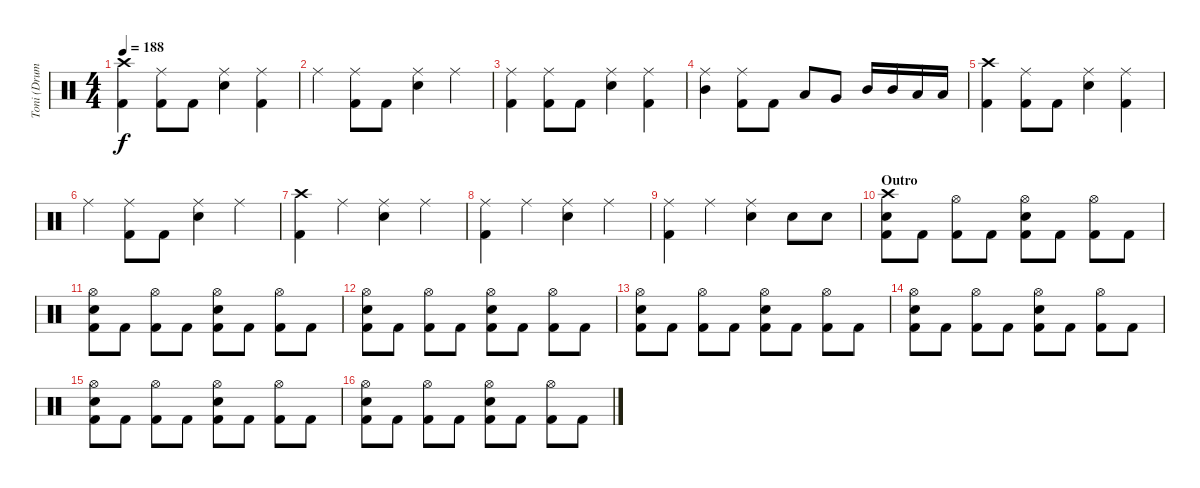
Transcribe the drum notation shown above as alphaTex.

\track ("Toni (Drums)" "Toni (Drum") {instrument percussion}
\staff {score}
\articulation defaults
\ts (4 4)
\tempo 188
\clef neutral
\ks c
("Crash high (hit)" "Kick (hit) 2").4{dy f} ("Ride (middle)" "Kick (hit) 2").8 "Kick (hit) 2".8 ("Ride (middle)" "Electric Snare (hit)").4 ("Ride (middle)" "Kick (hit) 2").4 |
"Ride (middle)".4 ("Ride (middle)" "Kick (hit) 2").8 "Kick (hit) 2".8 ("Ride (middle)" "Electric Snare (hit)").4 "Ride (middle)".4 |
("Ride (middle)" "Kick (hit) 2").4 ("Ride (middle)" "Kick (hit) 2").8 "Kick (hit) 2".8 ("Ride (middle)" "Electric Snare (hit)").4 ("Ride (middle)" "Kick (hit) 2").4 |
("Ride (middle)" "Mid Tom (hit)").4 ("Ride (middle)" "Kick (hit) 2").8 "Kick (hit) 2".8 "Low Tom (hit)".8 "Very Low Tom (hit)".8 "Mid Tom (hit)".16 "Mid Tom (hit)".16 "Low Tom (hit)".16 "Low Tom (hit)".16 |
("Crash high (hit)" "Kick (hit) 2").4 ("Ride (middle)" "Kick (hit) 2").8 "Kick (hit) 2".8 ("Ride (middle)" "Electric Snare (hit)").4 ("Ride (middle)" "Kick (hit) 2").4 |
"Ride (middle)".4 ("Ride (middle)" "Kick (hit) 2").8 "Kick (hit) 2".8 ("Ride (middle)" "Electric Snare (hit)").4 "Ride (middle)".4 |
("Crash high (hit)" "Kick (hit) 2").4 "Ride (middle)".4 ("Ride (middle)" "Electric Snare (hit)").4 "Ride (middle)".4 |
("Ride (middle)" "Kick (hit) 2").4 "Ride (middle)".4 ("Ride (middle)" "Electric Snare (hit)").4 "Ride (middle)".4 |
("Ride (middle)" "Kick (hit) 2").4 "Ride (middle)".4 ("Ride (middle)" "Electric Snare (hit)").4 "Electric Snare (hit)".8 "Electric Snare (hit)".8 |
\section ("" "Outro")
("Crash high (hit)" "Electric Snare (hit)" "Kick (hit) 2").8 "Kick (hit) 2".8 ("Hi-Hat (open)" "Kick (hit) 2").8 "Kick (hit) 2".8 ("Hi-Hat (open)" "Electric Snare (hit)" "Kick (hit) 2").8 "Kick (hit) 2".8 ("Hi-Hat (open)" "Kick (hit) 2").8 "Kick (hit) 2".8 |
("Hi-Hat (open)" "Electric Snare (hit)" "Kick (hit) 2").8 "Kick (hit) 2".8 ("Hi-Hat (open)" "Kick (hit) 2").8 "Kick (hit) 2".8 ("Hi-Hat (open)" "Electric Snare (hit)" "Kick (hit) 2").8 "Kick (hit) 2".8 ("Hi-Hat (open)" "Kick (hit) 2").8 "Kick (hit) 2".8 |
("Hi-Hat (open)" "Electric Snare (hit)" "Kick (hit) 2").8 "Kick (hit) 2".8 ("Hi-Hat (open)" "Kick (hit) 2").8 "Kick (hit) 2".8 ("Hi-Hat (open)" "Electric Snare (hit)" "Kick (hit) 2").8 "Kick (hit) 2".8 ("Hi-Hat (open)" "Kick (hit) 2").8 "Kick (hit) 2".8 |
("Hi-Hat (open)" "Electric Snare (hit)" "Kick (hit) 2").8 "Kick (hit) 2".8 ("Hi-Hat (open)" "Kick (hit) 2").8 "Kick (hit) 2".8 ("Hi-Hat (open)" "Electric Snare (hit)" "Kick (hit) 2").8 "Kick (hit) 2".8 ("Hi-Hat (open)" "Kick (hit) 2").8 "Kick (hit) 2".8 |
("Hi-Hat (open)" "Electric Snare (hit)" "Kick (hit) 2").8 "Kick (hit) 2".8 ("Hi-Hat (open)" "Kick (hit) 2").8 "Kick (hit) 2".8 ("Hi-Hat (open)" "Electric Snare (hit)" "Kick (hit) 2").8 "Kick (hit) 2".8 ("Hi-Hat (open)" "Kick (hit) 2").8 "Kick (hit) 2".8 |
("Hi-Hat (open)" "Electric Snare (hit)" "Kick (hit) 2").8 "Kick (hit) 2".8 ("Hi-Hat (open)" "Kick (hit) 2").8 "Kick (hit) 2".8 ("Hi-Hat (open)" "Electric Snare (hit)" "Kick (hit) 2").8 "Kick (hit) 2".8 ("Hi-Hat (open)" "Kick (hit) 2").8 "Kick (hit) 2".8 |
("Hi-Hat (open)" "Electric Snare (hit)" "Kick (hit) 2").8 "Kick (hit) 2".8 ("Hi-Hat (open)" "Kick (hit) 2").8 "Kick (hit) 2".8 ("Hi-Hat (open)" "Electric Snare (hit)" "Kick (hit) 2").8 "Kick (hit) 2".8 ("Hi-Hat (open)" "Kick (hit) 2").8 "Kick (hit) 2".8
